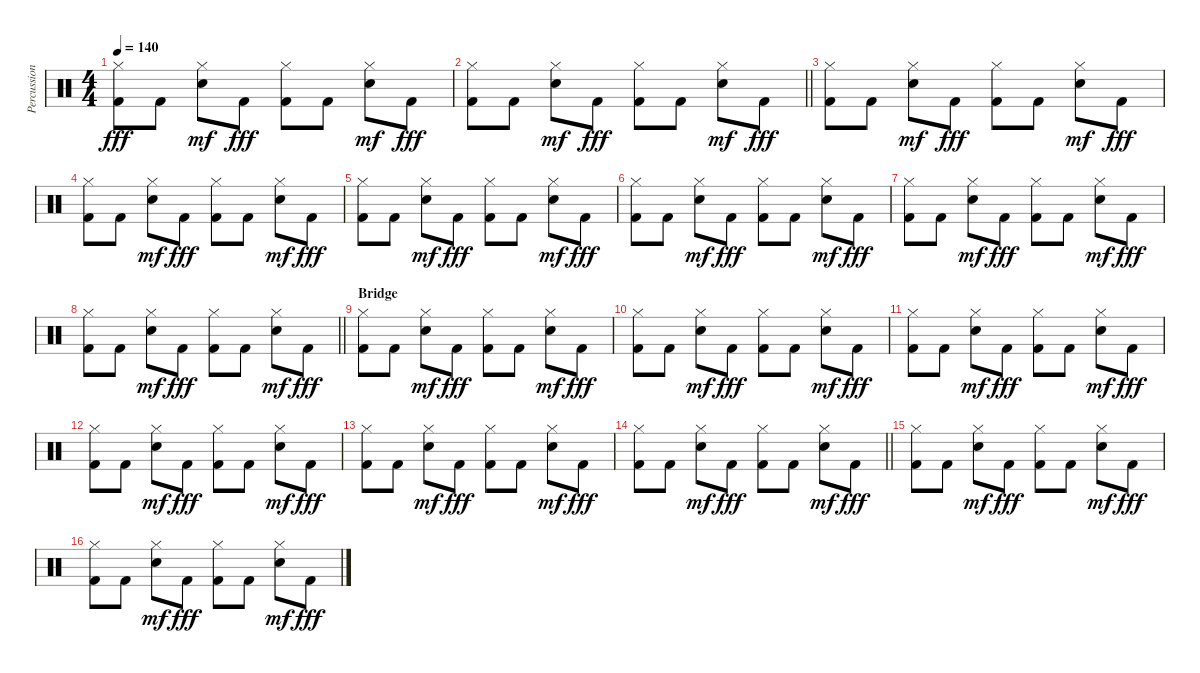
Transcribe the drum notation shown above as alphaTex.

\track ("Percussioni" "Percussion") {instrument percussion}
\staff {score}
\articulation defaults
\ts (4 4)
\tempo 140
\clef neutral
\ks c
("Hi-Hat (closed)" "Kick (hit) 2").8{dy fff} "Kick (hit) 2".8 ("Hi-Hat (closed)" "Snare (hit) 2").8{dy mf} "Kick (hit) 2".8{dy fff} ("Hi-Hat (closed)" "Kick (hit) 2").8 "Kick (hit) 2".8 ("Hi-Hat (closed)" "Snare (hit) 2").8{dy mf} "Kick (hit) 2".8{dy fff} |
\barLineRight lightlight
("Hi-Hat (closed)" "Kick (hit) 2").8 "Kick (hit) 2".8 ("Hi-Hat (closed)" "Snare (hit) 2").8{dy mf} "Kick (hit) 2".8{dy fff} ("Hi-Hat (closed)" "Kick (hit) 2").8 "Kick (hit) 2".8 ("Hi-Hat (closed)" "Snare (hit) 2").8{dy mf} "Kick (hit) 2".8{dy fff} |
("Hi-Hat (closed)" "Kick (hit) 2").8 "Kick (hit) 2".8 ("Hi-Hat (closed)" "Snare (hit) 2").8{dy mf} "Kick (hit) 2".8{dy fff} ("Hi-Hat (closed)" "Kick (hit) 2").8 "Kick (hit) 2".8 ("Hi-Hat (closed)" "Snare (hit) 2").8{dy mf} "Kick (hit) 2".8{dy fff} |
("Hi-Hat (closed)" "Kick (hit) 2").8 "Kick (hit) 2".8 ("Hi-Hat (closed)" "Snare (hit) 2").8{dy mf} "Kick (hit) 2".8{dy fff} ("Hi-Hat (closed)" "Kick (hit) 2").8 "Kick (hit) 2".8 ("Hi-Hat (closed)" "Snare (hit) 2").8{dy mf} "Kick (hit) 2".8{dy fff} |
("Hi-Hat (closed)" "Kick (hit) 2").8 "Kick (hit) 2".8 ("Hi-Hat (closed)" "Snare (hit) 2").8{dy mf} "Kick (hit) 2".8{dy fff} ("Hi-Hat (closed)" "Kick (hit) 2").8 "Kick (hit) 2".8 ("Hi-Hat (closed)" "Snare (hit) 2").8{dy mf} "Kick (hit) 2".8{dy fff} |
("Hi-Hat (closed)" "Kick (hit) 2").8 "Kick (hit) 2".8 ("Hi-Hat (closed)" "Snare (hit) 2").8{dy mf} "Kick (hit) 2".8{dy fff} ("Hi-Hat (closed)" "Kick (hit) 2").8 "Kick (hit) 2".8 ("Hi-Hat (closed)" "Snare (hit) 2").8{dy mf} "Kick (hit) 2".8{dy fff} |
("Hi-Hat (closed)" "Kick (hit) 2").8 "Kick (hit) 2".8 ("Hi-Hat (closed)" "Snare (hit) 2").8{dy mf} "Kick (hit) 2".8{dy fff} ("Hi-Hat (closed)" "Kick (hit) 2").8 "Kick (hit) 2".8 ("Hi-Hat (closed)" "Snare (hit) 2").8{dy mf} "Kick (hit) 2".8{dy fff} |
\barLineRight lightlight
("Hi-Hat (closed)" "Kick (hit) 2").8 "Kick (hit) 2".8 ("Hi-Hat (closed)" "Snare (hit) 2").8{dy mf} "Kick (hit) 2".8{dy fff} ("Hi-Hat (closed)" "Kick (hit) 2").8 "Kick (hit) 2".8 ("Hi-Hat (closed)" "Snare (hit) 2").8{dy mf} "Kick (hit) 2".8{dy fff} |
\section ("" "Bridge")
("Hi-Hat (closed)" "Kick (hit) 2").8 "Kick (hit) 2".8 ("Hi-Hat (closed)" "Snare (hit) 2").8{dy mf} "Kick (hit) 2".8{dy fff} ("Hi-Hat (closed)" "Kick (hit) 2").8 "Kick (hit) 2".8 ("Hi-Hat (closed)" "Snare (hit) 2").8{dy mf} "Kick (hit) 2".8{dy fff} |
("Hi-Hat (closed)" "Kick (hit) 2").8 "Kick (hit) 2".8 ("Hi-Hat (closed)" "Snare (hit) 2").8{dy mf} "Kick (hit) 2".8{dy fff} ("Hi-Hat (closed)" "Kick (hit) 2").8 "Kick (hit) 2".8 ("Hi-Hat (closed)" "Snare (hit) 2").8{dy mf} "Kick (hit) 2".8{dy fff} |
("Hi-Hat (closed)" "Kick (hit) 2").8 "Kick (hit) 2".8 ("Hi-Hat (closed)" "Snare (hit) 2").8{dy mf} "Kick (hit) 2".8{dy fff} ("Hi-Hat (closed)" "Kick (hit) 2").8 "Kick (hit) 2".8 ("Hi-Hat (closed)" "Snare (hit) 2").8{dy mf} "Kick (hit) 2".8{dy fff} |
("Hi-Hat (closed)" "Kick (hit) 2").8 "Kick (hit) 2".8 ("Hi-Hat (closed)" "Snare (hit) 2").8{dy mf} "Kick (hit) 2".8{dy fff} ("Hi-Hat (closed)" "Kick (hit) 2").8 "Kick (hit) 2".8 ("Hi-Hat (closed)" "Snare (hit) 2").8{dy mf} "Kick (hit) 2".8{dy fff} |
("Hi-Hat (closed)" "Kick (hit) 2").8 "Kick (hit) 2".8 ("Hi-Hat (closed)" "Snare (hit) 2").8{dy mf} "Kick (hit) 2".8{dy fff} ("Hi-Hat (closed)" "Kick (hit) 2").8 "Kick (hit) 2".8 ("Hi-Hat (closed)" "Snare (hit) 2").8{dy mf} "Kick (hit) 2".8{dy fff} |
\barLineRight lightlight
("Hi-Hat (closed)" "Kick (hit) 2").8 "Kick (hit) 2".8 ("Hi-Hat (closed)" "Snare (hit) 2").8{dy mf} "Kick (hit) 2".8{dy fff} ("Hi-Hat (closed)" "Kick (hit) 2").8 "Kick (hit) 2".8 ("Hi-Hat (closed)" "Snare (hit) 2").8{dy mf} "Kick (hit) 2".8{dy fff} |
("Hi-Hat (closed)" "Kick (hit) 2").8 "Kick (hit) 2".8 ("Hi-Hat (closed)" "Snare (hit) 2").8{dy mf} "Kick (hit) 2".8{dy fff} ("Hi-Hat (closed)" "Kick (hit) 2").8 "Kick (hit) 2".8 ("Hi-Hat (closed)" "Snare (hit) 2").8{dy mf} "Kick (hit) 2".8{dy fff} |
("Hi-Hat (closed)" "Kick (hit) 2").8 "Kick (hit) 2".8 ("Hi-Hat (closed)" "Snare (hit) 2").8{dy mf} "Kick (hit) 2".8{dy fff} ("Hi-Hat (closed)" "Kick (hit) 2").8 "Kick (hit) 2".8 ("Hi-Hat (closed)" "Snare (hit) 2").8{dy mf} "Kick (hit) 2".8{dy fff}
